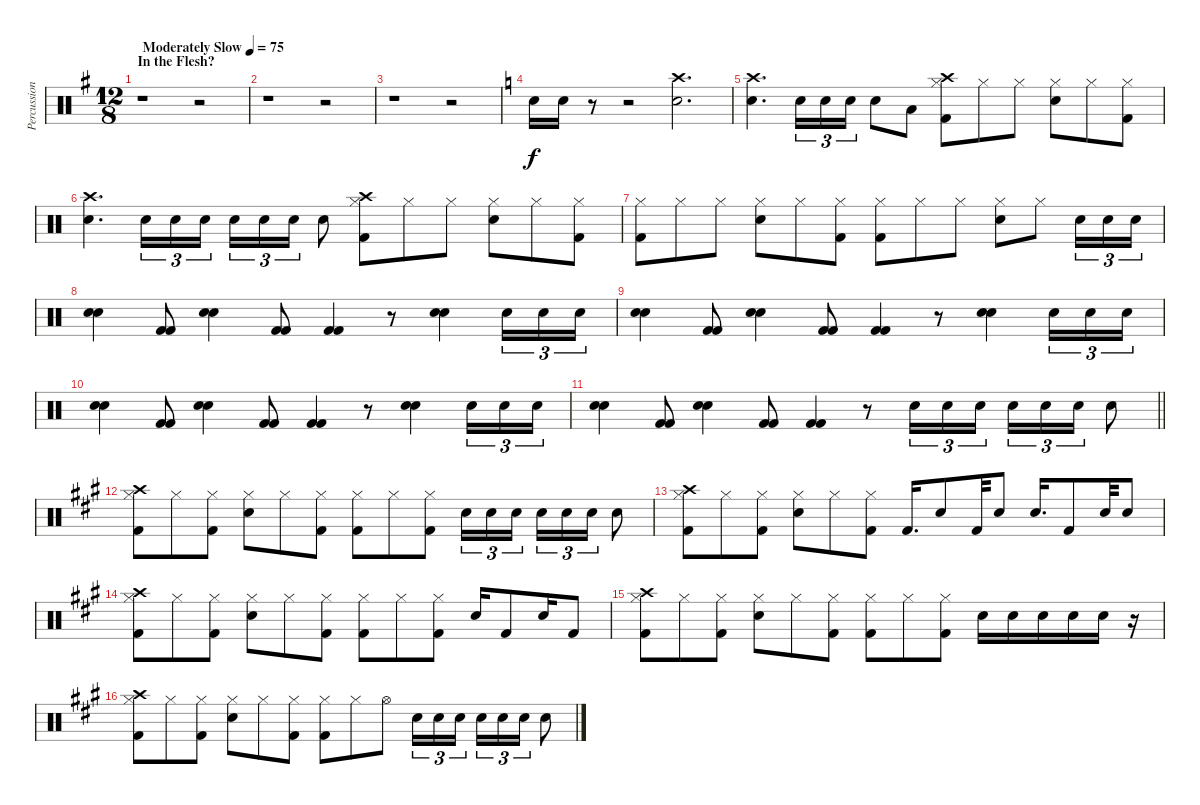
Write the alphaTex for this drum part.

\track ("Percussions" "Percussion") {instrument percussion}
\staff {score}
\articulation defaults
\ts (12 8)
\section ("" "In the Flesh?")
\tempo (75 "Moderately Slow")
\clef neutral
\ks g
r.1{dy f} r.2 |
r.1 r.2 |
r.1 r.2 |
\ks c "Snare (hit) 2".16 "Snare (hit) 2".16
r.8 r.2 ("Crash high (hit)" "Snare (hit) 2").2{d} |
("Crash high (hit)" "Snare (hit) 2").4{d} "Snare (hit) 2".16{tu (3 2)} "Snare (hit) 2".16{tu (3 2)} "Snare (hit) 2".16{tu (3 2)} "Snare (hit) 2".8 "Low Tom (hit)".8 ("Crash high (hit)" "Hi-Hat (closed)" "Kick (hit) 2").8 "Hi-Hat (closed)".8 "Hi-Hat (closed)".8 ("Hi-Hat (closed)" "Snare (hit) 2").8 "Hi-Hat (closed)".8 ("Hi-Hat (closed)" "Kick (hit) 2").8 |
("Crash high (hit)" "Snare (hit) 2").4{d} "Snare (hit) 2".16{tu (3 2)} "Snare (hit) 2".16{tu (3 2)} "Snare (hit) 2".16{tu (3 2) beam splitsecondary} "Snare (hit) 2".16{tu (3 2)} "Snare (hit) 2".16{tu (3 2)} "Snare (hit) 2".16{tu (3 2)} "Snare (hit) 2".8 ("Crash high (hit)" "Hi-Hat (closed)" "Kick (hit) 2").8 "Hi-Hat (closed)".8 "Hi-Hat (closed)".8 ("Hi-Hat (closed)" "Snare (hit) 2").8 "Hi-Hat (closed)".8 ("Hi-Hat (closed)" "Kick (hit) 2").8 |
("Hi-Hat (closed)" "Kick (hit) 2").8 "Hi-Hat (closed)".8 "Hi-Hat (closed)".8 ("Hi-Hat (closed)" "Snare (hit) 2").8 "Hi-Hat (closed)".8 ("Hi-Hat (closed)" "Kick (hit) 2").8 ("Hi-Hat (closed)" "Kick (hit) 2").8 "Hi-Hat (closed)".8 "Hi-Hat (closed)".8 ("Hi-Hat (closed)" "Snare (hit) 2").8 "Hi-Hat (closed)".8 "Snare (hit) 2".16{tu (3 2)} "Snare (hit) 2".16{tu (3 2)} "Snare (hit) 2".16{tu (3 2)} |
("Snare (hit) 2" "Snare (hit) 2").4 ("Kick (hit) 2" "Kick (hit) 2").8 ("Snare (hit) 2" "Snare (hit) 2").4 ("Kick (hit) 2" "Kick (hit) 2").8 ("Kick (hit) 2" "Kick (hit) 2").4 r.8 ("Snare (hit) 2" "Snare (hit) 2").4 "Snare (hit) 2".16{tu (3 2)} "Snare (hit) 2".16{tu (3 2)} "Snare (hit) 2".16{tu (3 2)} |
("Snare (hit) 2" "Snare (hit) 2").4 ("Kick (hit) 2" "Kick (hit) 2").8 ("Snare (hit) 2" "Snare (hit) 2").4 ("Kick (hit) 2" "Kick (hit) 2").8 ("Kick (hit) 2" "Kick (hit) 2").4 r.8 ("Snare (hit) 2" "Snare (hit) 2").4 "Snare (hit) 2".16{tu (3 2)} "Snare (hit) 2".16{tu (3 2)} "Snare (hit) 2".16{tu (3 2)} |
("Snare (hit) 2" "Snare (hit) 2").4 ("Kick (hit) 2" "Kick (hit) 2").8 ("Snare (hit) 2" "Snare (hit) 2").4 ("Kick (hit) 2" "Kick (hit) 2").8 ("Kick (hit) 2" "Kick (hit) 2").4 r.8 ("Snare (hit) 2" "Snare (hit) 2").4 "Snare (hit) 2".16{tu (3 2)} "Snare (hit) 2".16{tu (3 2)} "Snare (hit) 2".16{tu (3 2)} |
\barLineRight lightlight
("Snare (hit) 2" "Snare (hit) 2").4 ("Kick (hit) 2" "Kick (hit) 2").8 ("Snare (hit) 2" "Snare (hit) 2").4 ("Kick (hit) 2" "Kick (hit) 2").8 ("Kick (hit) 2" "Kick (hit) 2").4 r.8 "Snare (hit) 2".16{tu (3 2)} "Snare (hit) 2".16{tu (3 2)} "Snare (hit) 2".16{tu (3 2) beam splitsecondary} "Snare (hit) 2".16{tu (3 2)} "Snare (hit) 2".16{tu (3 2)} "Snare (hit) 2".16{tu (3 2)} "Snare (hit) 2".8 |
\ks a
("Crash high (hit)" "Hi-Hat (closed)" "Kick (hit) 2").8 "Hi-Hat (closed)".8 ("Hi-Hat (closed)" "Kick (hit) 2").8 ("Hi-Hat (closed)" "Snare (hit) 2").8 "Hi-Hat (closed)".8 ("Hi-Hat (closed)" "Kick (hit) 2").8 ("Hi-Hat (closed)" "Kick (hit) 2").8 "Hi-Hat (closed)".8 ("Hi-Hat (closed)" "Kick (hit) 2").8 "Snare (hit) 2".16{tu (3 2)} "Snare (hit) 2".16{tu (3 2)} "Snare (hit) 2".16{tu (3 2) beam splitsecondary} "Snare (hit) 2".16{tu (3 2)} "Snare (hit) 2".16{tu (3 2)} "Snare (hit) 2".16{tu (3 2)} "Snare (hit) 2".8 |
("Crash high (hit)" "Hi-Hat (closed)" "Kick (hit) 2").8 "Hi-Hat (closed)".8 ("Hi-Hat (closed)" "Kick (hit) 2").8 ("Hi-Hat (closed)" "Snare (hit) 2").8 "Hi-Hat (closed)".8 ("Hi-Hat (closed)" "Kick (hit) 2").8 "Kick (hit) 2".16{d} "Snare (hit) 2".8 "Kick (hit) 2".32 "Snare (hit) 2".8 "Snare (hit) 2".16{d} "Kick (hit) 2".8 "Snare (hit) 2".32 "Snare (hit) 2".8 |
("Crash high (hit)" "Hi-Hat (closed)" "Kick (hit) 2").8 "Hi-Hat (closed)".8 ("Hi-Hat (closed)" "Kick (hit) 2").8 ("Hi-Hat (closed)" "Snare (hit) 2").8 "Hi-Hat (closed)".8 ("Hi-Hat (closed)" "Kick (hit) 2").8 ("Hi-Hat (closed)" "Kick (hit) 2").8 "Hi-Hat (closed)".8 ("Hi-Hat (closed)" "Kick (hit) 2").8 "Snare (hit) 2".16 "Kick (hit) 2".8 "Snare (hit) 2".16 "Kick (hit) 2".8 |
("Crash high (hit)" "Hi-Hat (closed)" "Kick (hit) 2").8 "Hi-Hat (closed)".8 ("Hi-Hat (closed)" "Kick (hit) 2").8 ("Hi-Hat (closed)" "Snare (hit) 2").8 "Hi-Hat (closed)".8 ("Hi-Hat (closed)" "Kick (hit) 2").8 ("Hi-Hat (closed)" "Kick (hit) 2").8 "Hi-Hat (closed)".8 ("Hi-Hat (closed)" "Kick (hit) 2").8 "Snare (hit) 2".16 "Snare (hit) 2".16 "Snare (hit) 2".16 "Snare (hit) 2".16 "Snare (hit) 2".16 r.16 |
("Crash high (hit)" "Hi-Hat (closed)" "Kick (hit) 2").8 "Hi-Hat (closed)".8 ("Hi-Hat (closed)" "Kick (hit) 2").8 ("Hi-Hat (closed)" "Snare (hit) 2").8 "Hi-Hat (closed)".8 ("Hi-Hat (closed)" "Kick (hit) 2").8 ("Hi-Hat (closed)" "Kick (hit) 2").8 "Hi-Hat (closed)".8 "Hi-Hat (open)".8 "Snare (hit) 2".16{tu (3 2)} "Snare (hit) 2".16{tu (3 2)} "Snare (hit) 2".16{tu (3 2) beam splitsecondary} "Snare (hit) 2".16{tu (3 2)} "Snare (hit) 2".16{tu (3 2)} "Snare (hit) 2".16{tu (3 2)} "Snare (hit) 2".8
